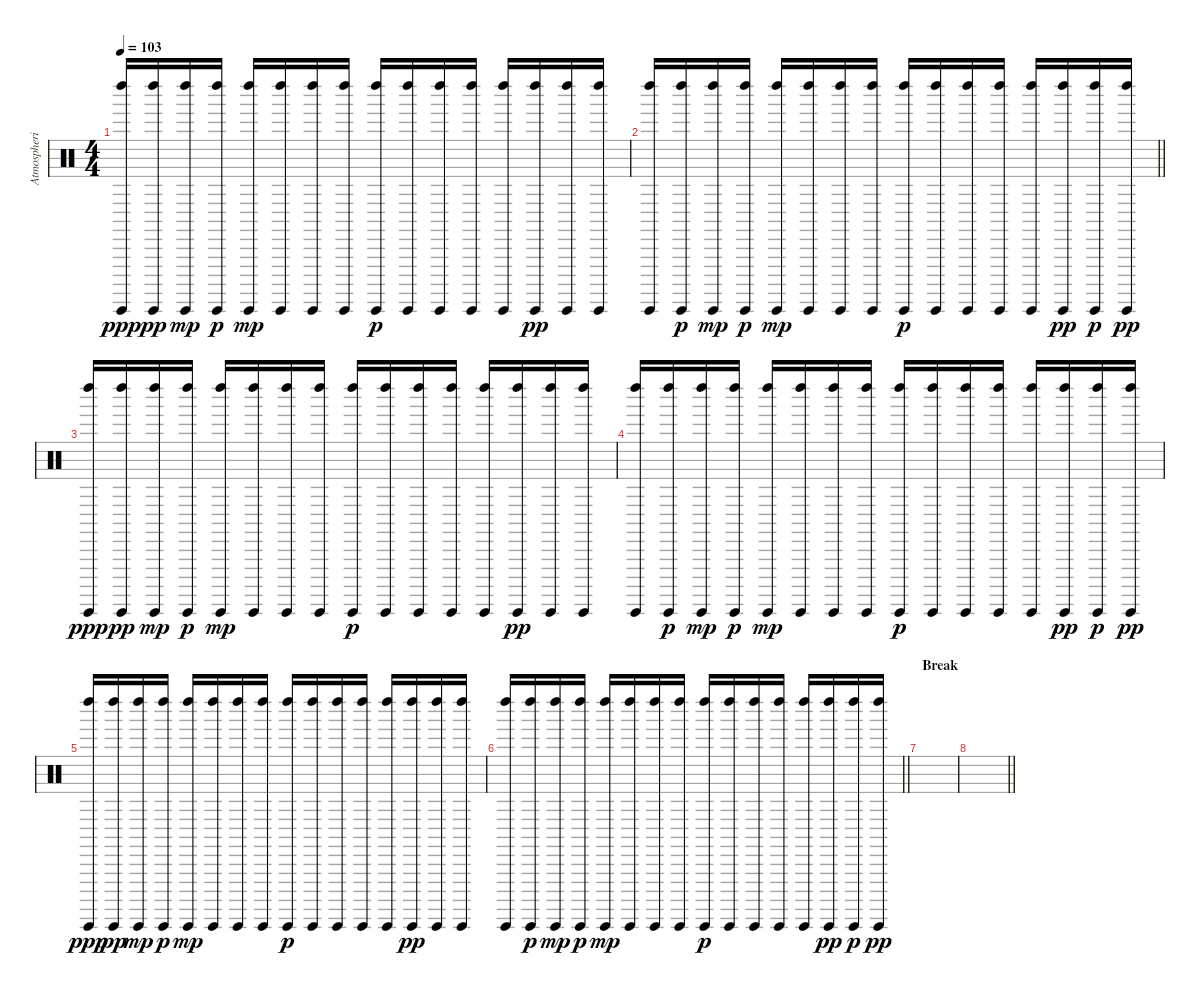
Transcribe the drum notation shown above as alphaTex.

\track ("Atmospheric Percussion" "Atmospheri") {instrument percussion}
\staff {score}
\articulation defaults
\ts (4 4)
\tempo 103
\clef neutral
\ks c
("Guiro (hit)" "Left Maraca (hit)").16{dy ppp} ("Guiro (hit)" "Left Maraca (hit)").16{dy pp} ("Guiro (hit)" "Left Maraca (hit)").16{dy mp} ("Guiro (hit)" "Left Maraca (hit)").16{dy p} ("Guiro (hit)" "Left Maraca (hit)").16{dy mp} ("Guiro (hit)" "Left Maraca (hit)").16 ("Guiro (hit)" "Left Maraca (hit)").16 ("Guiro (hit)" "Left Maraca (hit)").16 ("Guiro (hit)" "Left Maraca (hit)").16{dy p} ("Guiro (hit)" "Left Maraca (hit)").16 ("Guiro (hit)" "Left Maraca (hit)").16 ("Guiro (hit)" "Left Maraca (hit)").16 ("Guiro (hit)" "Left Maraca (hit)").16 ("Guiro (hit)" "Left Maraca (hit)").16{dy pp} ("Guiro (hit)" "Left Maraca (hit)").16 ("Guiro (hit)" "Left Maraca (hit)").16 |
\barLineRight lightlight
("Guiro (hit)" "Left Maraca (hit)").16 ("Guiro (hit)" "Left Maraca (hit)").16{dy p} ("Guiro (hit)" "Left Maraca (hit)").16{dy mp} ("Guiro (hit)" "Left Maraca (hit)").16{dy p} ("Guiro (hit)" "Left Maraca (hit)").16{dy mp} ("Guiro (hit)" "Left Maraca (hit)").16 ("Guiro (hit)" "Left Maraca (hit)").16 ("Guiro (hit)" "Left Maraca (hit)").16 ("Guiro (hit)" "Left Maraca (hit)").16{dy p} ("Guiro (hit)" "Left Maraca (hit)").16 ("Guiro (hit)" "Left Maraca (hit)").16 ("Guiro (hit)" "Left Maraca (hit)").16 ("Guiro (hit)" "Left Maraca (hit)").16 ("Guiro (hit)" "Left Maraca (hit)").16{dy pp} ("Guiro (hit)" "Left Maraca (hit)").16{dy p} ("Guiro (hit)" "Left Maraca (hit)").16{dy pp} |
("Guiro (hit)" "Left Maraca (hit)").16{dy ppp} ("Guiro (hit)" "Left Maraca (hit)").16{dy pp} ("Guiro (hit)" "Left Maraca (hit)").16{dy mp} ("Guiro (hit)" "Left Maraca (hit)").16{dy p} ("Guiro (hit)" "Left Maraca (hit)").16{dy mp} ("Guiro (hit)" "Left Maraca (hit)").16 ("Guiro (hit)" "Left Maraca (hit)").16 ("Guiro (hit)" "Left Maraca (hit)").16 ("Guiro (hit)" "Left Maraca (hit)").16{dy p} ("Guiro (hit)" "Left Maraca (hit)").16 ("Guiro (hit)" "Left Maraca (hit)").16 ("Guiro (hit)" "Left Maraca (hit)").16 ("Guiro (hit)" "Left Maraca (hit)").16 ("Guiro (hit)" "Left Maraca (hit)").16{dy pp} ("Guiro (hit)" "Left Maraca (hit)").16 ("Guiro (hit)" "Left Maraca (hit)").16 |
("Guiro (hit)" "Left Maraca (hit)").16 ("Guiro (hit)" "Left Maraca (hit)").16{dy p} ("Guiro (hit)" "Left Maraca (hit)").16{dy mp} ("Guiro (hit)" "Left Maraca (hit)").16{dy p} ("Guiro (hit)" "Left Maraca (hit)").16{dy mp} ("Guiro (hit)" "Left Maraca (hit)").16 ("Guiro (hit)" "Left Maraca (hit)").16 ("Guiro (hit)" "Left Maraca (hit)").16 ("Guiro (hit)" "Left Maraca (hit)").16{dy p} ("Guiro (hit)" "Left Maraca (hit)").16 ("Guiro (hit)" "Left Maraca (hit)").16 ("Guiro (hit)" "Left Maraca (hit)").16 ("Guiro (hit)" "Left Maraca (hit)").16 ("Guiro (hit)" "Left Maraca (hit)").16{dy pp} ("Guiro (hit)" "Left Maraca (hit)").16{dy p} ("Guiro (hit)" "Left Maraca (hit)").16{dy pp} |
("Guiro (hit)" "Left Maraca (hit)").16{dy ppp} ("Guiro (hit)" "Left Maraca (hit)").16{dy pp} ("Guiro (hit)" "Left Maraca (hit)").16{dy mp} ("Guiro (hit)" "Left Maraca (hit)").16{dy p} ("Guiro (hit)" "Left Maraca (hit)").16{dy mp} ("Guiro (hit)" "Left Maraca (hit)").16 ("Guiro (hit)" "Left Maraca (hit)").16 ("Guiro (hit)" "Left Maraca (hit)").16 ("Guiro (hit)" "Left Maraca (hit)").16{dy p} ("Guiro (hit)" "Left Maraca (hit)").16 ("Guiro (hit)" "Left Maraca (hit)").16 ("Guiro (hit)" "Left Maraca (hit)").16 ("Guiro (hit)" "Left Maraca (hit)").16 ("Guiro (hit)" "Left Maraca (hit)").16{dy pp} ("Guiro (hit)" "Left Maraca (hit)").16 ("Guiro (hit)" "Left Maraca (hit)").16 |
\barLineRight lightlight
("Guiro (hit)" "Left Maraca (hit)").16 ("Guiro (hit)" "Left Maraca (hit)").16{dy p} ("Guiro (hit)" "Left Maraca (hit)").16{dy mp} ("Guiro (hit)" "Left Maraca (hit)").16{dy p} ("Guiro (hit)" "Left Maraca (hit)").16{dy mp} ("Guiro (hit)" "Left Maraca (hit)").16 ("Guiro (hit)" "Left Maraca (hit)").16 ("Guiro (hit)" "Left Maraca (hit)").16 ("Guiro (hit)" "Left Maraca (hit)").16{dy p} ("Guiro (hit)" "Left Maraca (hit)").16 ("Guiro (hit)" "Left Maraca (hit)").16 ("Guiro (hit)" "Left Maraca (hit)").16 ("Guiro (hit)" "Left Maraca (hit)").16 ("Guiro (hit)" "Left Maraca (hit)").16{dy pp} ("Guiro (hit)" "Left Maraca (hit)").16{dy p} ("Guiro (hit)" "Left Maraca (hit)").16{dy pp} |
\section ("" "Break")
|
\barLineRight lightlight
